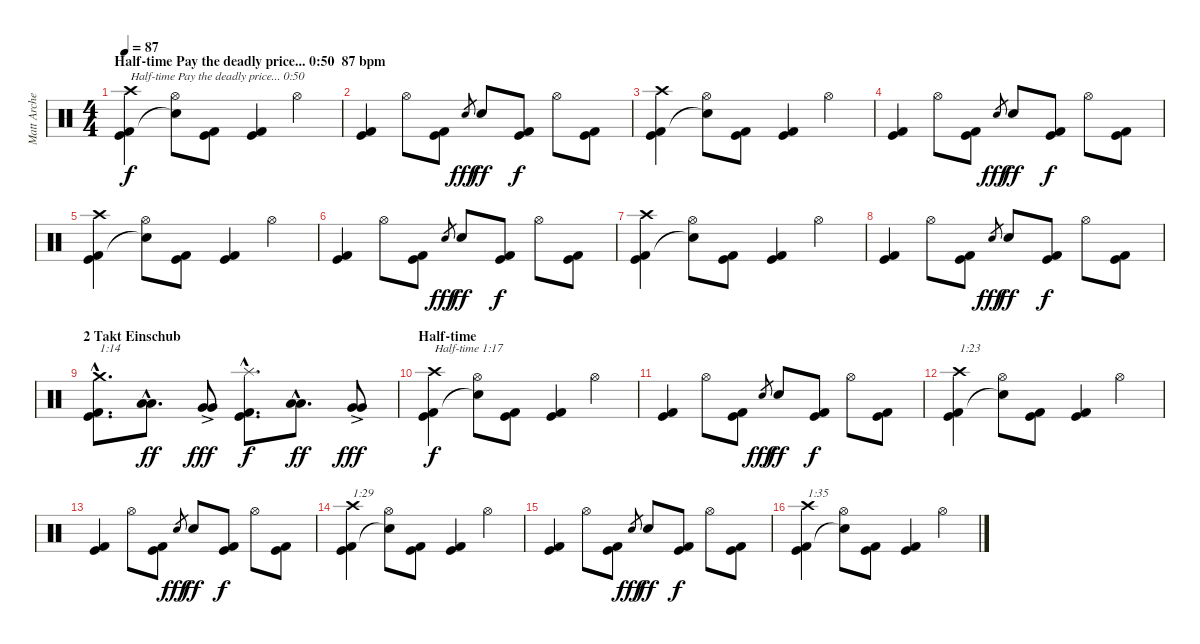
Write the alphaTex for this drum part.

\track ("Matt Archer" "Matt Arche") {instrument percussion}
\staff {score}
\articulation defaults
\ts (4 4)
\section ("" "Half-time Pay the deadly price... 0:50  87 bpm")
\tempo 87
\clef neutral
\ks c
("Kick (hit)" "Kick (hit) 2" "Crash high (hit)").4{txt "Half-time Pay the deadly price... 0:50" dy f} ("Hi-Hat (open)" "Snare (hit)"{t}).8 ("Kick (hit)" "Kick (hit) 2").8 ("Kick (hit)" "Kick (hit) 2").4 "Hi-Hat (open)".4 |
("Kick (hit)" "Kick (hit) 2").4 "Hi-Hat (open)".8 ("Kick (hit)" "Kick (hit) 2").8 "Electric Snare (hit)".8{gr dy fff} "Electric Snare (hit)".8{dy ff} ("Kick (hit)" "Kick (hit) 2").8{dy f} "Hi-Hat (open)".8 ("Kick (hit)" "Kick (hit) 2").8 |
("Kick (hit)" "Kick (hit) 2" "Crash high (hit)").4 ("Hi-Hat (open)" "Snare (hit)"{t}).8 ("Kick (hit)" "Kick (hit) 2").8 ("Kick (hit)" "Kick (hit) 2").4 "Hi-Hat (open)".4 |
("Kick (hit)" "Kick (hit) 2").4 "Hi-Hat (open)".8 ("Kick (hit)" "Kick (hit) 2").8 "Electric Snare (hit)".8{gr dy fff} "Electric Snare (hit)".8{dy ff} ("Kick (hit)" "Kick (hit) 2").8{dy f} "Hi-Hat (open)".8 ("Kick (hit)" "Kick (hit) 2").8 |
("Kick (hit)" "Kick (hit) 2" "Crash high (hit)").4 ("Hi-Hat (open)" "Snare (hit)"{t}).8 ("Kick (hit)" "Kick (hit) 2").8 ("Kick (hit)" "Kick (hit) 2").4 "Hi-Hat (open)".4 |
("Kick (hit)" "Kick (hit) 2").4 "Hi-Hat (open)".8 ("Kick (hit)" "Kick (hit) 2").8 "Electric Snare (hit)".8{gr dy fff} "Electric Snare (hit)".8{dy ff} ("Kick (hit)" "Kick (hit) 2").8{dy f} "Hi-Hat (open)".8 ("Kick (hit)" "Kick (hit) 2").8 |
("Kick (hit)" "Kick (hit) 2" "Crash high (hit)").4 ("Hi-Hat (open)" "Snare (hit)"{t}).8 ("Kick (hit)" "Kick (hit) 2").8 ("Kick (hit)" "Kick (hit) 2").4 "Hi-Hat (open)".4 |
("Kick (hit)" "Kick (hit) 2").4 "Hi-Hat (open)".8 ("Kick (hit)" "Kick (hit) 2").8 "Electric Snare (hit)".8{gr dy fff} "Electric Snare (hit)".8{dy ff} ("Kick (hit)" "Kick (hit) 2").8{dy f} "Hi-Hat (open)".8 ("Kick (hit)" "Kick (hit) 2").8 |
\section ("" "2 Takt Einschub")
("Kick (hit)"{hac} "Kick (hit) 2"{hac} "Crash medium (hit)"{hac}).8{d txt "1:14"} ("Low Tom (hit)"{hac} "Low Tom (hit)"{hac}).8{d dy ff} ("Very Low Tom (hit)"{ac} "Very Low Tom (hit)"{ac}).8{dy fff} ("Kick (hit)"{hac} "Kick (hit) 2"{hac} "Splash (hit)"{hac}).8{d dy f} ("Low Tom (hit)"{hac} "Low Tom (hit)"{hac}).8{d dy ff} ("Very Low Tom (hit)"{ac} "Very Low Tom (hit)"{ac}).8{dy fff} |
\section ("" "Half-time")
("Kick (hit)" "Kick (hit) 2" "Crash high (hit)").4{txt "Half-time 1:17" dy f} ("Hi-Hat (open)" "Snare (hit)"{t}).8 ("Kick (hit)" "Kick (hit) 2").8 ("Kick (hit)" "Kick (hit) 2").4 "Hi-Hat (open)".4 |
("Kick (hit)" "Kick (hit) 2").4 "Hi-Hat (open)".8 ("Kick (hit)" "Kick (hit) 2").8 "Electric Snare (hit)".8{gr dy fff} "Electric Snare (hit)".8{dy ff} ("Kick (hit)" "Kick (hit) 2").8{dy f} "Hi-Hat (open)".8 ("Kick (hit)" "Kick (hit) 2").8 |
("Kick (hit)" "Kick (hit) 2" "Crash high (hit)").4{txt "1:23"} ("Hi-Hat (open)" "Snare (hit)"{t}).8 ("Kick (hit)" "Kick (hit) 2").8 ("Kick (hit)" "Kick (hit) 2").4 "Hi-Hat (open)".4 |
("Kick (hit)" "Kick (hit) 2").4 "Hi-Hat (open)".8 ("Kick (hit)" "Kick (hit) 2").8 "Electric Snare (hit)".8{gr dy fff} "Electric Snare (hit)".8{dy ff} ("Kick (hit)" "Kick (hit) 2").8{dy f} "Hi-Hat (open)".8 ("Kick (hit)" "Kick (hit) 2").8 |
("Kick (hit)" "Kick (hit) 2" "Crash high (hit)").4{txt "1:29"} ("Hi-Hat (open)" "Snare (hit)"{t}).8 ("Kick (hit)" "Kick (hit) 2").8 ("Kick (hit)" "Kick (hit) 2").4 "Hi-Hat (open)".4 |
("Kick (hit)" "Kick (hit) 2").4 "Hi-Hat (open)".8 ("Kick (hit)" "Kick (hit) 2").8 "Electric Snare (hit)".8{gr dy fff} "Electric Snare (hit)".8{dy ff} ("Kick (hit)" "Kick (hit) 2").8{dy f} "Hi-Hat (open)".8 ("Kick (hit)" "Kick (hit) 2").8 |
("Kick (hit)" "Kick (hit) 2" "Crash high (hit)").4{txt "1:35"} ("Hi-Hat (open)" "Snare (hit)"{t}).8 ("Kick (hit)" "Kick (hit) 2").8 ("Kick (hit)" "Kick (hit) 2").4 "Hi-Hat (open)".4
